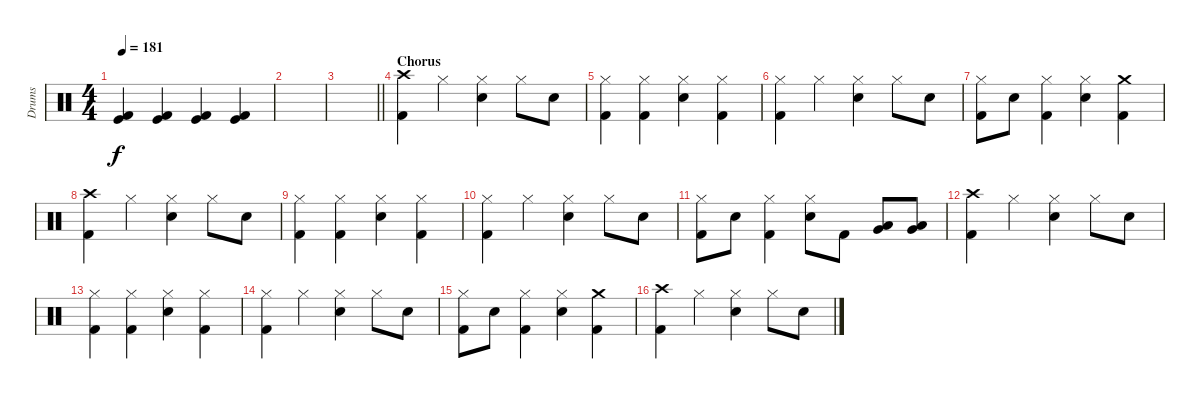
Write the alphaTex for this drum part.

\track ("Drums" "Drums") {instrument percussion}
\staff {score}
\articulation defaults
\ts (4 4)
\tempo 181
\clef neutral
\ks c
("Kick (hit)" "Kick (hit) 2").4{dy f} ("Kick (hit)" "Kick (hit) 2").4 ("Kick (hit)" "Kick (hit) 2").4 ("Kick (hit)" "Kick (hit) 2").4 |
|
\barLineRight lightlight
|
\section ("" "Chorus")
("Crash high (hit)" "Kick (hit) 2").4 "Hi-Hat (closed)".4 ("Hi-Hat (closed)" "Snare (hit) 2").4 "Hi-Hat (closed)".8 "Snare (hit) 2".8 |
("Hi-Hat (closed)" "Kick (hit) 2").4 ("Hi-Hat (closed)" "Kick (hit) 2").4 ("Hi-Hat (closed)" "Snare (hit) 2").4 ("Hi-Hat (closed)" "Kick (hit) 2").4 |
("Hi-Hat (closed)" "Kick (hit) 2").4 "Hi-Hat (closed)".4 ("Hi-Hat (closed)" "Snare (hit) 2").4 "Hi-Hat (closed)".8 "Snare (hit) 2".8 |
("Hi-Hat (closed)" "Kick (hit) 2").8 "Snare (hit) 2".8 ("Hi-Hat (closed)" "Kick (hit) 2").4 ("Hi-Hat (closed)" "Snare (hit) 2").4 ("Crash medium (hit)" "Kick (hit) 2").4 |
("Crash high (hit)" "Kick (hit) 2").4 "Hi-Hat (closed)".4 ("Hi-Hat (closed)" "Snare (hit) 2").4 "Hi-Hat (closed)".8 "Snare (hit) 2".8 |
("Hi-Hat (closed)" "Kick (hit) 2").4 ("Hi-Hat (closed)" "Kick (hit) 2").4 ("Hi-Hat (closed)" "Snare (hit) 2").4 ("Hi-Hat (closed)" "Kick (hit) 2").4 |
("Hi-Hat (closed)" "Kick (hit) 2").4 "Hi-Hat (closed)".4 ("Hi-Hat (closed)" "Snare (hit) 2").4 "Hi-Hat (closed)".8 "Snare (hit) 2".8 |
("Hi-Hat (closed)" "Kick (hit) 2").8 "Snare (hit) 2".8 ("Hi-Hat (closed)" "Kick (hit) 2").4 ("Hi-Hat (closed)" "Snare (hit) 2").8 "Kick (hit) 2".8 ("Very Low Tom (hit)" "Low Tom (hit)").8 ("Low Floor Tom (hit)" "Very Low Tom (hit)").8 |
("Crash high (hit)" "Kick (hit) 2").4 "Hi-Hat (closed)".4 ("Hi-Hat (closed)" "Snare (hit) 2").4 "Hi-Hat (closed)".8 "Snare (hit) 2".8 |
("Hi-Hat (closed)" "Kick (hit) 2").4 ("Hi-Hat (closed)" "Kick (hit) 2").4 ("Hi-Hat (closed)" "Snare (hit) 2").4 ("Hi-Hat (closed)" "Kick (hit) 2").4 |
("Hi-Hat (closed)" "Kick (hit) 2").4 "Hi-Hat (closed)".4 ("Hi-Hat (closed)" "Snare (hit) 2").4 "Hi-Hat (closed)".8 "Snare (hit) 2".8 |
("Hi-Hat (closed)" "Kick (hit) 2").8 "Snare (hit) 2".8 ("Hi-Hat (closed)" "Kick (hit) 2").4 ("Hi-Hat (closed)" "Snare (hit) 2").4 ("Crash medium (hit)" "Kick (hit) 2").4 |
("Crash high (hit)" "Kick (hit) 2").4 "Hi-Hat (closed)".4 ("Hi-Hat (closed)" "Snare (hit) 2").4 "Hi-Hat (closed)".8 "Snare (hit) 2".8
